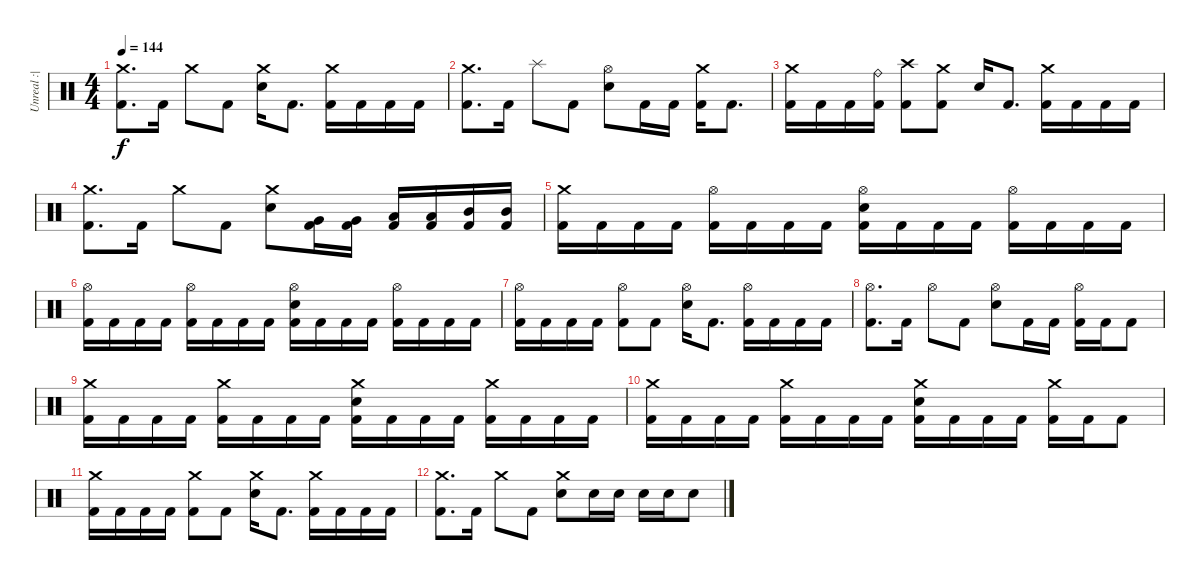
\track ("Unreal :|" "Unreal :|") {instrument percussion}
\staff {score}
\articulation defaults
\ts (4 4)
\tempo 144
\clef neutral
\ks c
("Crash medium (hit)" "Kick (hit) 2").8{d dy f} "Kick (hit) 2".16 "Crash medium (hit)".8 "Kick (hit) 2".8 ("Crash medium (hit)" "Electric Snare (hit)").16 "Kick (hit) 2".8{d} ("Crash medium (hit)" "Kick (hit) 2").16 "Kick (hit) 2".16 "Kick (hit) 2".16 "Kick (hit) 2".16 |
("Crash medium (hit)" "Kick (hit) 2").8{d} "Kick (hit) 2".16 "Splash (hit)".8 "Kick (hit) 2".8 ("Hi-Hat (open)" "Electric Snare (hit)").8 "Kick (hit) 2".16 "Kick (hit) 2".16 ("Crash medium (hit)" "Kick (hit) 2").16 "Kick (hit) 2".8{d} |
("Crash medium (hit)" "Kick (hit) 2").16 "Kick (hit) 2".16 "Kick (hit) 2".16 ("Ride (bell)" "Kick (hit) 2").16 ("Crash high (hit)" "Kick (hit) 2").8 ("Crash medium (hit)" "Kick (hit) 2").8 "Electric Snare (hit)".16 "Kick (hit) 2".8{d} ("Crash medium (hit)" "Kick (hit) 2").16 "Kick (hit) 2".16 "Kick (hit) 2".16 "Kick (hit) 2".16 |
("Crash medium (hit)" "Kick (hit) 2").8{d} "Kick (hit) 2".16 "Crash medium (hit)".8 "Kick (hit) 2".8 ("Crash medium (hit)" "Electric Snare (hit)").8 ("Very Low Tom (hit)" "Kick (hit) 2").16 ("Very Low Tom (hit)" "Kick (hit) 2").16 ("Low Tom (hit)" "Kick (hit) 2").16 ("Low Tom (hit)" "Kick (hit) 2").16 ("Mid Tom (hit)" "Kick (hit) 2").16 ("Mid Tom (hit)" "Kick (hit) 2").16 |
("Crash medium (hit)" "Kick (hit) 2").16 "Kick (hit) 2".16 "Kick (hit) 2".16 "Kick (hit) 2".16 ("Hi-Hat (open)" "Kick (hit) 2").16 "Kick (hit) 2".16 "Kick (hit) 2".16 "Kick (hit) 2".16 ("Hi-Hat (open)" "Electric Snare (hit)" "Kick (hit) 2").16 "Kick (hit) 2".16 "Kick (hit) 2".16 "Kick (hit) 2".16 ("Hi-Hat (open)" "Kick (hit) 2").16 "Kick (hit) 2".16 "Kick (hit) 2".16 "Kick (hit) 2".16 |
("Hi-Hat (open)" "Kick (hit) 2").16 "Kick (hit) 2".16 "Kick (hit) 2".16 "Kick (hit) 2".16 ("Hi-Hat (open)" "Kick (hit) 2").16 "Kick (hit) 2".16 "Kick (hit) 2".16 "Kick (hit) 2".16 ("Hi-Hat (open)" "Electric Snare (hit)" "Kick (hit) 2").16 "Kick (hit) 2".16 "Kick (hit) 2".16 "Kick (hit) 2".16 ("Hi-Hat (open)" "Kick (hit) 2").16 "Kick (hit) 2".16 "Kick (hit) 2".16 "Kick (hit) 2".16 |
("Hi-Hat (open)" "Kick (hit) 2").16 "Kick (hit) 2".16 "Kick (hit) 2".16 "Kick (hit) 2".16 ("Hi-Hat (open)" "Kick (hit) 2").8 "Kick (hit) 2".8 ("Hi-Hat (open)" "Electric Snare (hit)").16 "Kick (hit) 2".8{d} ("Hi-Hat (open)" "Kick (hit) 2").16 "Kick (hit) 2".16 "Kick (hit) 2".16 "Kick (hit) 2".16 |
("Hi-Hat (open)" "Kick (hit) 2").8{d} "Kick (hit) 2".16 "Hi-Hat (open)".8 "Kick (hit) 2".8 ("Hi-Hat (open)" "Electric Snare (hit)").8 "Kick (hit) 2".16 "Kick (hit) 2".16 ("Hi-Hat (open)" "Kick (hit) 2").16 "Kick (hit) 2".16 "Kick (hit) 2".8 |
("Crash medium (hit)" "Kick (hit) 2").16 "Kick (hit) 2".16 "Kick (hit) 2".16 "Kick (hit) 2".16 ("Crash medium (hit)" "Kick (hit) 2").16 "Kick (hit) 2".16 "Kick (hit) 2".16 "Kick (hit) 2".16 ("Crash medium (hit)" "Electric Snare (hit)" "Kick (hit) 2").16 "Kick (hit) 2".16 "Kick (hit) 2".16 "Kick (hit) 2".16 ("Crash medium (hit)" "Kick (hit) 2").16 "Kick (hit) 2".16 "Kick (hit) 2".16 "Kick (hit) 2".16 |
("Crash medium (hit)" "Kick (hit) 2").16 "Kick (hit) 2".16 "Kick (hit) 2".16 "Kick (hit) 2".16 ("Crash medium (hit)" "Kick (hit) 2").16 "Kick (hit) 2".16 "Kick (hit) 2".16 "Kick (hit) 2".16 ("Crash medium (hit)" "Electric Snare (hit)" "Kick (hit) 2").16 "Kick (hit) 2".16 "Kick (hit) 2".16 "Kick (hit) 2".16 ("Crash medium (hit)" "Kick (hit) 2").16 "Kick (hit) 2".16 "Kick (hit) 2".8 |
("Crash medium (hit)" "Kick (hit) 2").16 "Kick (hit) 2".16 "Kick (hit) 2".16 "Kick (hit) 2".16 ("Crash medium (hit)" "Kick (hit) 2").8 "Kick (hit) 2".8 ("Crash medium (hit)" "Electric Snare (hit)").16 "Kick (hit) 2".8{d} ("Crash medium (hit)" "Kick (hit) 2").16 "Kick (hit) 2".16 "Kick (hit) 2".16 "Kick (hit) 2".16 |
("Crash medium (hit)" "Kick (hit) 2").8{d} "Kick (hit) 2".16 "Crash medium (hit)".8 "Kick (hit) 2".8 ("Crash medium (hit)" "Electric Snare (hit)").8 "Electric Snare (hit)".16 "Electric Snare (hit)".16 "Electric Snare (hit)".16 "Electric Snare (hit)".16 "Electric Snare (hit)".8
